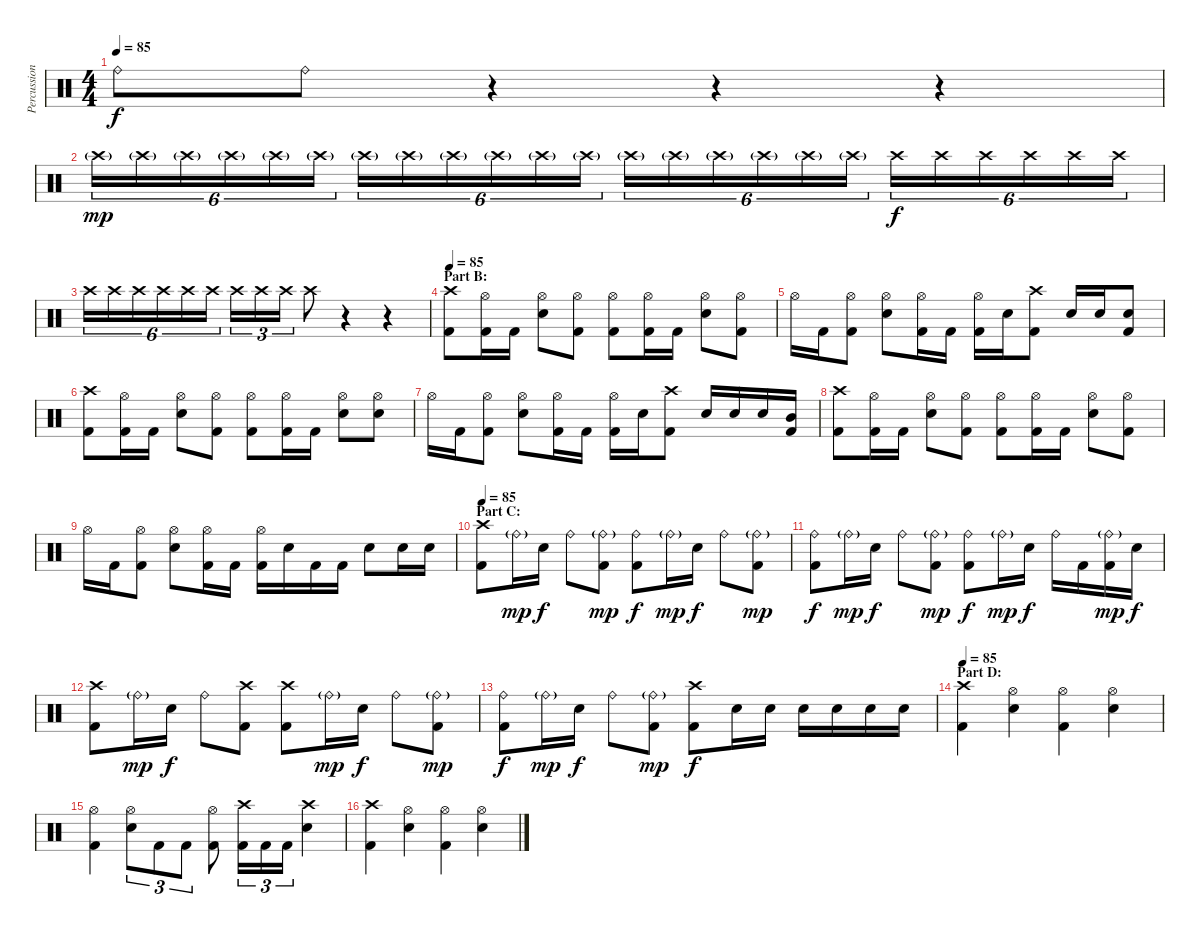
\track ("Percussion" "Percussion") {instrument percussion}
\staff {score}
\articulation defaults
\ts (4 4)
\tempo 85
\clef neutral
\ks c "Ride (bell)".8{dy f} "Ride (bell)".8
r.4 r.4 r.4 |
"Crash high (hit)"{g}.16{tu (6 4) dy mp} "Crash high (hit)"{g}.16{tu (6 4)} "Crash high (hit)"{g}.16{tu (6 4)} "Crash high (hit)"{g}.16{tu (6 4)} "Crash high (hit)"{g}.16{tu (6 4)} "Crash high (hit)"{g}.16{tu (6 4)} "Crash high (hit)"{g}.16{tu (6 4)} "Crash high (hit)"{g}.16{tu (6 4)} "Crash high (hit)"{g}.16{tu (6 4)} "Crash high (hit)"{g}.16{tu (6 4)} "Crash high (hit)"{g}.16{tu (6 4)} "Crash high (hit)"{g}.16{tu (6 4)} "Crash high (hit)"{g}.16{tu (6 4)} "Crash high (hit)"{g}.16{tu (6 4)} "Crash high (hit)"{g}.16{tu (6 4)} "Crash high (hit)"{g}.16{tu (6 4)} "Crash high (hit)"{g}.16{tu (6 4)} "Crash high (hit)"{g}.16{tu (6 4)} "Crash high (hit)".16{tu (6 4) dy f} "Crash high (hit)".16{tu (6 4)} "Crash high (hit)".16{tu (6 4)} "Crash high (hit)".16{tu (6 4)} "Crash high (hit)".16{tu (6 4)} "Crash high (hit)".16{tu (6 4)} |
"Crash high (hit)".16{tu (6 4)} "Crash high (hit)".16{tu (6 4)} "Crash high (hit)".16{tu (6 4)} "Crash high (hit)".16{tu (6 4)} "Crash high (hit)".16{tu (6 4)} "Crash high (hit)".16{tu (6 4)} "Crash high (hit)".16{tu (3 2)} "Crash high (hit)".16{tu (3 2)} "Crash high (hit)".16{tu (3 2)} "Crash high (hit)".8 r.4 r.4 |
\section ("" "Part B:")
\tempo 85
("Crash high (hit)" "Kick (hit) 2").8 ("Hi-Hat (open)" "Kick (hit) 2").16 "Kick (hit) 2".16 ("Hi-Hat (open)" "Electric Snare (hit)").8 ("Hi-Hat (open)" "Kick (hit) 2").8 ("Hi-Hat (open)" "Kick (hit) 2").8 ("Hi-Hat (open)" "Kick (hit) 2").16 "Kick (hit) 2".16 ("Hi-Hat (open)" "Electric Snare (hit)").8 ("Hi-Hat (open)" "Kick (hit) 2").8 |
"Hi-Hat (open)".16 "Kick (hit) 2".16 ("Hi-Hat (open)" "Kick (hit) 2").8 ("Hi-Hat (open)" "Electric Snare (hit)").8 ("Hi-Hat (open)" "Kick (hit) 2").16 "Kick (hit) 2".16 ("Hi-Hat (open)" "Kick (hit) 2").16 "Electric Snare (hit)".16 ("Crash high (hit)" "Kick (hit) 2").8 "Electric Snare (hit)".16 "Electric Snare (hit)".16 ("Electric Snare (hit)" "Kick (hit) 2").8 |
("Crash high (hit)" "Kick (hit) 2").8 ("Hi-Hat (open)" "Kick (hit) 2").16 "Kick (hit) 2".16 ("Hi-Hat (open)" "Electric Snare (hit)").8 ("Hi-Hat (open)" "Kick (hit) 2").8 ("Hi-Hat (open)" "Kick (hit) 2").8 ("Hi-Hat (open)" "Kick (hit) 2").16 "Kick (hit) 2".16 ("Hi-Hat (open)" "Electric Snare (hit)").8 ("Hi-Hat (open)" "Electric Snare (hit)").8 |
"Hi-Hat (open)".16 "Kick (hit) 2".16 ("Hi-Hat (open)" "Kick (hit) 2").8 ("Hi-Hat (open)" "Electric Snare (hit)").8 ("Hi-Hat (open)" "Kick (hit) 2").16 "Kick (hit) 2".16 ("Hi-Hat (open)" "Kick (hit) 2").16 "Electric Snare (hit)".16 ("Crash high (hit)" "Kick (hit) 2").8 "Electric Snare (hit)".16 "Electric Snare (hit)".16 "Electric Snare (hit)".16 ("Mid Tom (hit)" "Kick (hit) 2").16 |
("Crash high (hit)" "Kick (hit) 2").8 ("Hi-Hat (open)" "Kick (hit) 2").16 "Kick (hit) 2".16 ("Hi-Hat (open)" "Electric Snare (hit)").8 ("Hi-Hat (open)" "Kick (hit) 2").8 ("Hi-Hat (open)" "Kick (hit) 2").8 ("Hi-Hat (open)" "Kick (hit) 2").16 "Kick (hit) 2".16 ("Hi-Hat (open)" "Electric Snare (hit)").8 ("Hi-Hat (open)" "Kick (hit) 2").8 |
"Hi-Hat (open)".16 "Kick (hit) 2".16 ("Hi-Hat (open)" "Kick (hit) 2").8 ("Hi-Hat (open)" "Electric Snare (hit)").8 ("Hi-Hat (open)" "Kick (hit) 2").16 "Kick (hit) 2".16 ("Hi-Hat (open)" "Kick (hit) 2").16 "Electric Snare (hit)".16 "Kick (hit) 2".16 "Kick (hit) 2".16 "Electric Snare (hit)".8 "Electric Snare (hit)".16 "Electric Snare (hit)".16 |
\section ("" "Part C:")
\tempo 85
("Crash high (hit)" "Kick (hit) 2").8 "Ride (bell)"{g}.16{dy mp} "Electric Snare (hit)".16{dy f} "Ride (bell)".8 ("Ride (bell)"{g} "Kick (hit) 2").8{dy mp} ("Ride (bell)" "Kick (hit) 2").8{dy f} "Ride (bell)"{g}.16{dy mp} "Electric Snare (hit)".16{dy f} "Ride (bell)".8 ("Ride (bell)"{g} "Kick (hit) 2").8{dy mp} |
("Ride (bell)" "Kick (hit) 2").8{dy f} "Ride (bell)"{g}.16{dy mp} "Electric Snare (hit)".16{dy f} "Ride (bell)".8 ("Ride (bell)"{g} "Kick (hit) 2").8{dy mp} ("Ride (bell)" "Kick (hit) 2").8{dy f} "Ride (bell)"{g}.16{dy mp} "Electric Snare (hit)".16{dy f} "Ride (bell)".16 "Kick (hit) 2".16 ("Ride (bell)"{g} "Kick (hit) 2").16{dy mp} "Electric Snare (hit)".16{dy f} |
("Crash high (hit)" "Kick (hit) 2").8 "Ride (bell)"{g}.16{dy mp} "Electric Snare (hit)".16{dy f} "Ride (bell)".8 ("Crash high (hit)" "Kick (hit) 2").8 ("Crash high (hit)" "Kick (hit) 2").8 "Ride (bell)"{g}.16{dy mp} "Electric Snare (hit)".16{dy f} "Ride (bell)".8 ("Ride (bell)"{g} "Kick (hit) 2").8{dy mp} |
("Ride (bell)" "Kick (hit) 2").8{dy f} "Ride (bell)"{g}.16{dy mp} "Electric Snare (hit)".16{dy f} "Ride (bell)".8 ("Ride (bell)"{g} "Kick (hit) 2").8{dy mp} ("Crash high (hit)" "Kick (hit) 2").8{dy f} "Electric Snare (hit)".16 "Electric Snare (hit)".16 "Electric Snare (hit)".16 "Electric Snare (hit)".16 "Electric Snare (hit)".16 "Electric Snare (hit)".16 |
\section ("" "Part D:")
\tempo 85
("Crash high (hit)" "Kick (hit) 2").4 ("Hi-Hat (open)" "Electric Snare (hit)").4 ("Hi-Hat (open)" "Kick (hit) 2").4 ("Hi-Hat (open)" "Electric Snare (hit)").4 |
("Hi-Hat (open)" "Kick (hit) 2").4 ("Hi-Hat (open)" "Electric Snare (hit)").8{tu (3 2)} "Kick (hit) 2".8{tu (3 2)} "Kick (hit) 2".8{tu (3 2)} ("Hi-Hat (open)" "Kick (hit) 2").8 ("Crash high (hit)" "Kick (hit) 2").16{tu (3 2)} "Kick (hit) 2".16{tu (3 2)} "Kick (hit) 2".16{tu (3 2)} ("Crash high (hit)" "Electric Snare (hit)").4 |
("Crash high (hit)" "Kick (hit) 2").4 ("Hi-Hat (open)" "Electric Snare (hit)").4 ("Hi-Hat (open)" "Kick (hit) 2").4 ("Hi-Hat (open)" "Electric Snare (hit)").4
